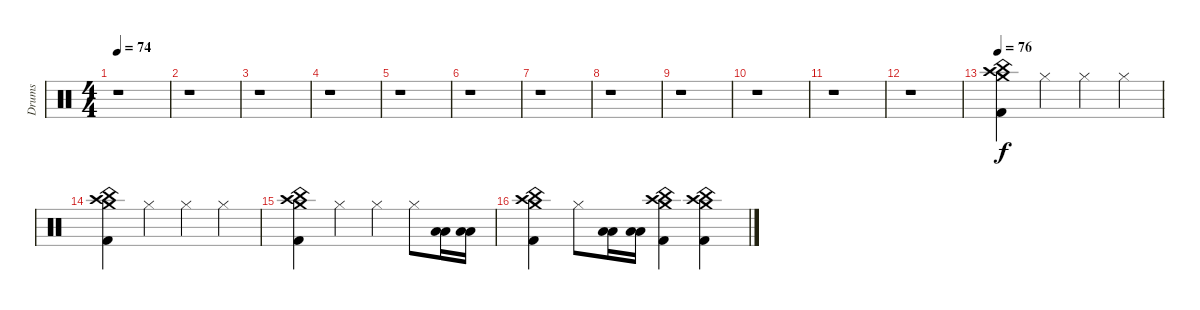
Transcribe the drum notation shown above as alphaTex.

\track ("Drums" "Drums") {instrument percussion}
\staff {score}
\articulation defaults
\ts (4 4)
\tempo 74
\clef neutral
\ks c
r.1{dy f} |
r.1 |
r.1 |
r.1 |
r.1 |
r.1 |
r.1 |
r.1 |
r.1 |
r.1 |
r.1 |
r.1 |
\tempo 76
("Crash medium (hit)" "Crash high (hit)" "China (hit)" "Kick (hit) 2").4 "Hi-Hat (closed)".4 "Hi-Hat (closed)".4 "Hi-Hat (closed)".4 |
("Crash medium (hit)" "Crash high (hit)" "China (hit)" "Kick (hit) 2").4 "Hi-Hat (closed)".4 "Hi-Hat (closed)".4 "Hi-Hat (closed)".4 |
("Crash medium (hit)" "Crash high (hit)" "China (hit)" "Kick (hit) 2").4 "Hi-Hat (closed)".4 "Hi-Hat (closed)".4 "Hi-Hat (closed)".8 ("Low Tom (hit)" "Low Floor Tom (hit)").16 ("Low Tom (hit)" "Low Floor Tom (hit)").16 |
("Crash medium (hit)" "Crash high (hit)" "China (hit)" "Kick (hit) 2").4 "Hi-Hat (closed)".8 ("Low Tom (hit)" "Low Floor Tom (hit)").16 ("Low Tom (hit)" "Low Floor Tom (hit)").16 ("Crash medium (hit)" "Crash high (hit)" "China (hit)" "Kick (hit) 2").4 ("Crash medium (hit)" "Crash high (hit)" "China (hit)" "Kick (hit) 2").4
